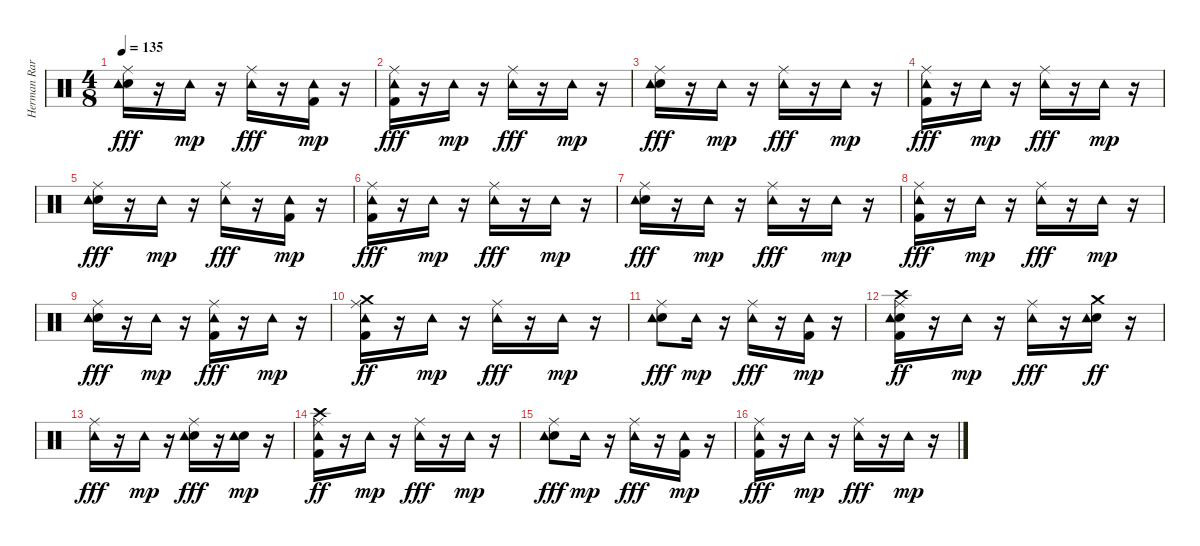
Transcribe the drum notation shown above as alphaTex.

\track ("Herman Rarebell" "Herman Rar") {instrument percussion}
\staff {score}
\articulation defaults
\ts (4 8)
\tempo 135
\clef neutral
\ks c
("Snare (hit) 2" "Ride (middle)" "Tambourine (hit)").16{dy fff} r.16 "Tambourine (hit)".16{dy mp} r.16 ("Ride (middle)" "Tambourine (hit)").16{dy fff} r.16 ("Kick (hit) 2" "Tambourine (hit)").16{dy mp} r.16 |
("Kick (hit) 2" "Ride (middle)" "Tambourine (hit)").16{dy fff} r.16 "Tambourine (hit)".16{dy mp} r.16 ("Ride (middle)" "Tambourine (hit)").16{dy fff} r.16 "Tambourine (hit)".16{dy mp} r.16 |
("Snare (hit) 2" "Ride (middle)" "Tambourine (hit)").16{dy fff} r.16 "Tambourine (hit)".16{dy mp} r.16 ("Ride (middle)" "Tambourine (hit)").16{dy fff} r.16 "Tambourine (hit)".16{dy mp} r.16 |
("Kick (hit) 2" "Ride (middle)" "Tambourine (hit)").16{dy fff} r.16 "Tambourine (hit)".16{dy mp} r.16 ("Ride (middle)" "Tambourine (hit)").16{dy fff} r.16 "Tambourine (hit)".16{dy mp} r.16 |
("Snare (hit) 2" "Ride (middle)" "Tambourine (hit)").16{dy fff} r.16 "Tambourine (hit)".16{dy mp} r.16 ("Ride (middle)" "Tambourine (hit)").16{dy fff} r.16 ("Kick (hit) 2" "Tambourine (hit)").16{dy mp} r.16 |
("Kick (hit) 2" "Ride (middle)" "Tambourine (hit)").16{dy fff} r.16 "Tambourine (hit)".16{dy mp} r.16 ("Ride (middle)" "Tambourine (hit)").16{dy fff} r.16 "Tambourine (hit)".16{dy mp} r.16 |
("Snare (hit) 2" "Ride (middle)" "Tambourine (hit)").16{dy fff} r.16 "Tambourine (hit)".16{dy mp} r.16 ("Ride (middle)" "Tambourine (hit)").16{dy fff} r.16 "Tambourine (hit)".16{dy mp} r.16 |
("Kick (hit) 2" "Ride (middle)" "Tambourine (hit)").16{dy fff} r.16 "Tambourine (hit)".16{dy mp} r.16 ("Ride (middle)" "Tambourine (hit)").16{dy fff} r.16 "Tambourine (hit)".16{dy mp} r.16 |
("Snare (hit) 2" "Ride (middle)" "Tambourine (hit)").16{dy fff} r.16 "Tambourine (hit)".16{dy mp} r.16 ("Kick (hit) 2" "Ride (middle)" "Tambourine (hit)").16{dy fff} r.16 "Tambourine (hit)".16{dy mp} r.16 |
("Kick (hit) 2" "Ride (middle)" "Tambourine (hit)" "Crash medium (hit)").16{dy ff} r.16 "Tambourine (hit)".16{dy mp} r.16 ("Ride (middle)" "Tambourine (hit)").16{dy fff} r.16 "Tambourine (hit)".16{dy mp} r.16 |
("Snare (hit) 2" "Ride (middle)" "Tambourine (hit)").8{dy fff} "Tambourine (hit)".16{dy mp} r.16 ("Ride (middle)" "Tambourine (hit)").16{dy fff} r.16 ("Kick (hit) 2" "Tambourine (hit)").16{dy mp} r.16 |
("Kick (hit) 2" "Snare (hit) 2" "Ride (middle)" "Tambourine (hit)" "Crash high (hit)").16{dy ff} r.16 "Tambourine (hit)".16{dy mp} r.16 ("Ride (middle)" "Tambourine (hit)").16{dy fff} r.16 ("Snare (hit) 2" "Tambourine (hit)" "Crash medium (hit)").16{dy ff} r.16 |
("Ride (middle)" "Tambourine (hit)").16{dy fff} r.16 "Tambourine (hit)".16{dy mp} r.16 ("Snare (hit) 2" "Ride (middle)" "Tambourine (hit)").16{dy fff} r.16 ("Snare (hit) 2" "Tambourine (hit)").16{dy mp} r.16 |
("Kick (hit) 2" "Ride (middle)" "Tambourine (hit)" "Crash high (hit)").16{dy ff} r.16 "Tambourine (hit)".16{dy mp} r.16 ("Ride (middle)" "Tambourine (hit)").16{dy fff} r.16 "Tambourine (hit)".16{dy mp} r.16 |
("Snare (hit) 2" "Ride (middle)" "Tambourine (hit)").8{dy fff} "Tambourine (hit)".16{dy mp} r.16 ("Ride (middle)" "Tambourine (hit)").16{dy fff} r.16 ("Kick (hit) 2" "Tambourine (hit)").16{dy mp} r.16 |
("Kick (hit) 2" "Ride (middle)" "Tambourine (hit)").16{dy fff} r.16 "Tambourine (hit)".16{dy mp} r.16 ("Ride (middle)" "Tambourine (hit)").16{dy fff} r.16 "Tambourine (hit)".16{dy mp} r.16
